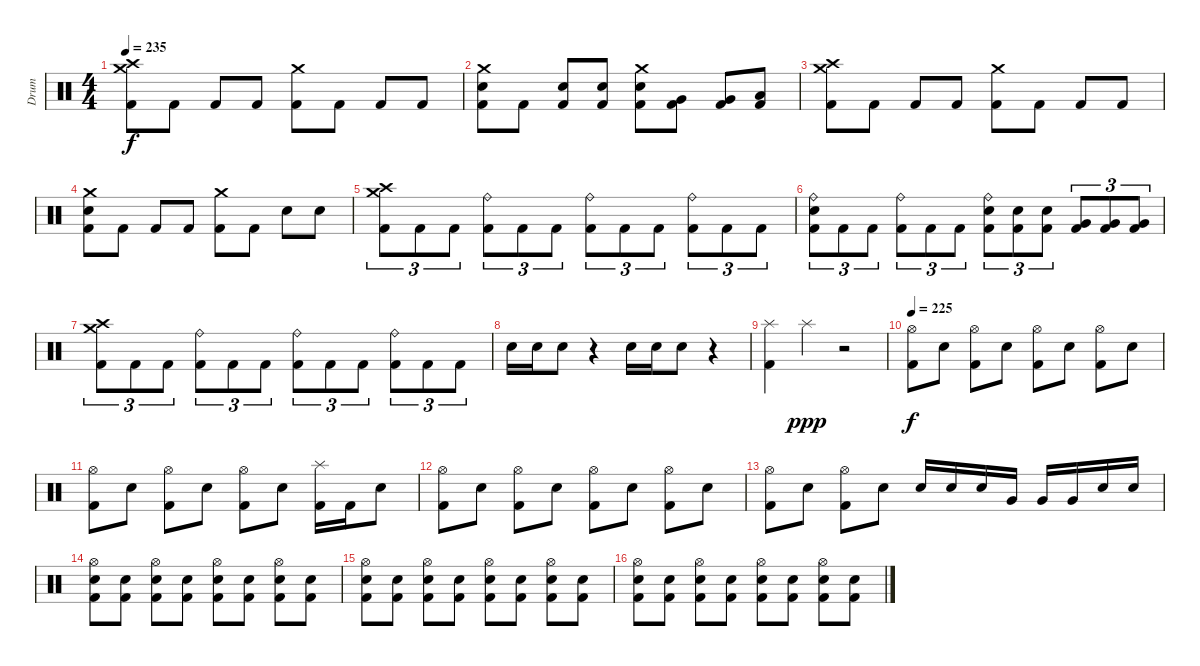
\track ("Drum" "Drum") {instrument percussion}
\staff {score}
\articulation defaults
\ts (4 4)
\tempo 235
\clef neutral
\ks c
("Crash medium (hit)" "Crash high (hit)" "Kick (hit) 2").8{dy f} "Kick (hit) 2".8 "Kick (hit) 2".8 "Kick (hit) 2".8 ("Crash medium (hit)" "Kick (hit) 2").8 "Kick (hit) 2".8 "Kick (hit) 2".8 "Kick (hit) 2".8 |
("Crash medium (hit)" "Electric Snare (hit)" "Kick (hit) 2").8 "Kick (hit) 2".8 ("Electric Snare (hit)" "Kick (hit) 2").8 ("Electric Snare (hit)" "Kick (hit) 2").8 ("Crash medium (hit)" "Electric Snare (hit)" "Kick (hit) 2").8 ("Very Low Tom (hit)" "Kick (hit) 2").8 ("Very Low Tom (hit)" "Kick (hit) 2").8 ("Low Tom (hit)" "Kick (hit) 2").8 |
("Crash medium (hit)" "Crash high (hit)" "Kick (hit) 2").8 "Kick (hit) 2".8 "Kick (hit) 2".8 "Kick (hit) 2".8 ("Crash medium (hit)" "Kick (hit) 2").8 "Kick (hit) 2".8 "Kick (hit) 2".8 "Kick (hit) 2".8 |
("Crash medium (hit)" "Electric Snare (hit)" "Kick (hit) 2").8 "Kick (hit) 2".8 "Kick (hit) 2".8 "Kick (hit) 2".8 ("Crash medium (hit)" "Kick (hit) 2").8 "Kick (hit) 2".8 "Electric Snare (hit)".8 "Electric Snare (hit)".8 |
("Crash medium (hit)" "Crash high (hit)" "Kick (hit) 2").8{tu (3 2)} "Kick (hit) 2".8{tu (3 2)} "Kick (hit) 2".8{tu (3 2)} ("Ride (bell)" "Kick (hit) 2").8{tu (3 2)} "Kick (hit) 2".8{tu (3 2)} "Kick (hit) 2".8{tu (3 2)} ("Ride (bell)" "Kick (hit) 2").8{tu (3 2)} "Kick (hit) 2".8{tu (3 2)} "Kick (hit) 2".8{tu (3 2)} ("Ride (bell)" "Kick (hit) 2").8{tu (3 2)} "Kick (hit) 2".8{tu (3 2)} "Kick (hit) 2".8{tu (3 2)} |
("Ride (bell)" "Electric Snare (hit)" "Kick (hit) 2").8{tu (3 2)} "Kick (hit) 2".8{tu (3 2)} "Kick (hit) 2".8{tu (3 2)} ("Ride (bell)" "Kick (hit) 2").8{tu (3 2)} "Kick (hit) 2".8{tu (3 2)} "Kick (hit) 2".8{tu (3 2)} ("Ride (bell)" "Electric Snare (hit)" "Kick (hit) 2").8{tu (3 2)} ("Electric Snare (hit)" "Kick (hit) 2").8{tu (3 2)} ("Electric Snare (hit)" "Kick (hit) 2").8{tu (3 2)} ("Very Low Tom (hit)" "Kick (hit) 2").8{tu (3 2)} ("Very Low Tom (hit)" "Kick (hit) 2").8{tu (3 2)} ("Very Low Tom (hit)" "Kick (hit) 2").8{tu (3 2)} |
("Crash medium (hit)" "Crash high (hit)" "Kick (hit) 2").8{tu (3 2)} "Kick (hit) 2".8{tu (3 2)} "Kick (hit) 2".8{tu (3 2)} ("Ride (bell)" "Kick (hit) 2").8{tu (3 2)} "Kick (hit) 2".8{tu (3 2)} "Kick (hit) 2".8{tu (3 2)} ("Ride (bell)" "Kick (hit) 2").8{tu (3 2)} "Kick (hit) 2".8{tu (3 2)} "Kick (hit) 2".8{tu (3 2)} ("Ride (bell)" "Kick (hit) 2").8{tu (3 2)} "Kick (hit) 2".8{tu (3 2)} "Kick (hit) 2".8{tu (3 2)} |
"Electric Snare (hit)".16 "Electric Snare (hit)".16 "Electric Snare (hit)".8 r.4 "Electric Snare (hit)".16 "Electric Snare (hit)".16 "Electric Snare (hit)".8 r.4 |
("Splash (hit)" "Kick (hit) 2").4 "Splash (hit)".4{dy ppp} r.2 |
\tempo 225
("Hi-Hat (open)" "Kick (hit) 2").8{dy f} "Electric Snare (hit)".8 ("Hi-Hat (open)" "Kick (hit) 2").8 "Electric Snare (hit)".8 ("Hi-Hat (open)" "Kick (hit) 2").8 "Electric Snare (hit)".8 ("Hi-Hat (open)" "Kick (hit) 2").8 "Electric Snare (hit)".8 |
("Hi-Hat (open)" "Kick (hit) 2").8 "Electric Snare (hit)".8 ("Hi-Hat (open)" "Kick (hit) 2").8 "Electric Snare (hit)".8 ("Hi-Hat (open)" "Kick (hit) 2").8 "Electric Snare (hit)".8 ("Splash (hit)" "Kick (hit) 2").16 "Kick (hit) 2".16 "Electric Snare (hit)".8 |
("Hi-Hat (open)" "Kick (hit) 2").8 "Electric Snare (hit)".8 ("Hi-Hat (open)" "Kick (hit) 2").8 "Electric Snare (hit)".8 ("Hi-Hat (open)" "Kick (hit) 2").8 "Electric Snare (hit)".8 ("Hi-Hat (open)" "Kick (hit) 2").8 "Electric Snare (hit)".8 |
("Hi-Hat (open)" "Kick (hit) 2").8 "Electric Snare (hit)".8 ("Hi-Hat (open)" "Kick (hit) 2").8 "Electric Snare (hit)".8 "Electric Snare (hit)".16 "Electric Snare (hit)".16 "Electric Snare (hit)".16 "Very Low Tom (hit)".16 "Very Low Tom (hit)".16 "Very Low Tom (hit)".16 "Electric Snare (hit)".16 "Electric Snare (hit)".16 |
("Hi-Hat (open)" "Electric Snare (hit)" "Kick (hit) 2").8 ("Electric Snare (hit)" "Kick (hit) 2").8 ("Hi-Hat (open)" "Electric Snare (hit)" "Kick (hit) 2").8 ("Electric Snare (hit)" "Kick (hit) 2").8 ("Hi-Hat (open)" "Electric Snare (hit)" "Kick (hit) 2").8 ("Electric Snare (hit)" "Kick (hit) 2").8 ("Hi-Hat (open)" "Electric Snare (hit)" "Kick (hit) 2").8 ("Electric Snare (hit)" "Kick (hit) 2").8 |
("Hi-Hat (open)" "Electric Snare (hit)" "Kick (hit) 2").8 ("Electric Snare (hit)" "Kick (hit) 2").8 ("Hi-Hat (open)" "Electric Snare (hit)" "Kick (hit) 2").8 ("Electric Snare (hit)" "Kick (hit) 2").8 ("Hi-Hat (open)" "Electric Snare (hit)" "Kick (hit) 2").8 ("Electric Snare (hit)" "Kick (hit) 2").8 ("Hi-Hat (open)" "Electric Snare (hit)" "Kick (hit) 2").8 ("Electric Snare (hit)" "Kick (hit) 2").8 |
("Hi-Hat (open)" "Electric Snare (hit)" "Kick (hit) 2").8 ("Electric Snare (hit)" "Kick (hit) 2").8 ("Hi-Hat (open)" "Electric Snare (hit)" "Kick (hit) 2").8 ("Electric Snare (hit)" "Kick (hit) 2").8 ("Hi-Hat (open)" "Electric Snare (hit)" "Kick (hit) 2").8 ("Electric Snare (hit)" "Kick (hit) 2").8 ("Hi-Hat (open)" "Electric Snare (hit)" "Kick (hit) 2").8 ("Electric Snare (hit)" "Kick (hit) 2").8
